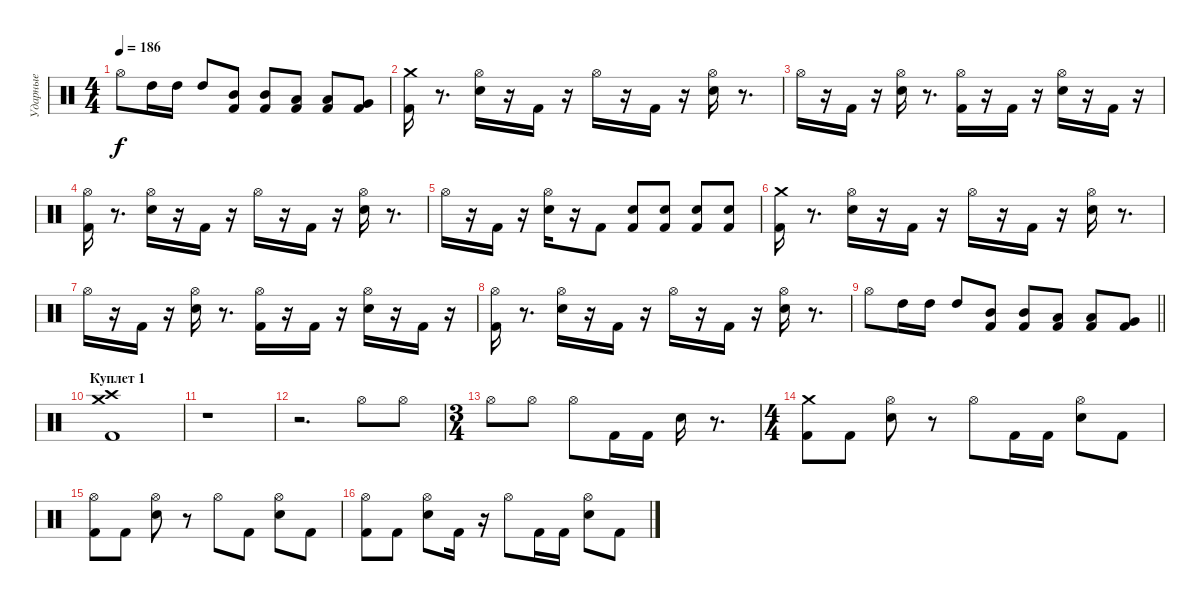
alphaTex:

\track ("Ударные" "Ударные") {instrument percussion}
\staff {score}
\articulation defaults
\ts (4 4)
\tempo 186
\clef neutral
\ks c "Hi-Hat (open)".8{dy f} "High Tom (hit)".16 "High Tom (hit)".16 "High Tom (hit)".8
("Kick (hit) 2" "Mid Tom (hit)").8 ("Kick (hit) 2" "Mid Tom (hit)").8 ("Kick (hit) 2" "Low Tom (hit)").8 ("Kick (hit) 2" "Low Tom (hit)").8 ("Kick (hit) 2" "Very Low Tom (hit)").8 |
("Kick (hit) 2" "Crash medium (hit)").16 r.8{d} ("Snare (hit) 2" "Hi-Hat (open)").16 r.16 "Kick (hit) 2".16 r.16 "Hi-Hat (open)".16 r.16 "Kick (hit) 2".16 r.16 ("Snare (hit) 2" "Hi-Hat (open)").16 r.8{d} |
"Hi-Hat (open)".16 r.16 "Kick (hit) 2".16 r.16 ("Snare (hit) 2" "Hi-Hat (open)").16 r.8{d} ("Kick (hit) 2" "Hi-Hat (open)").16 r.16 "Kick (hit) 2".16 r.16 ("Snare (hit) 2" "Hi-Hat (open)").16 r.16 "Kick (hit) 2".16 r.16 |
("Kick (hit) 2" "Hi-Hat (open)").16 r.8{d} ("Snare (hit) 2" "Hi-Hat (open)").16 r.16 "Kick (hit) 2".16 r.16 "Hi-Hat (open)".16 r.16 "Kick (hit) 2".16 r.16 ("Snare (hit) 2" "Hi-Hat (open)").16 r.8{d} |
"Hi-Hat (open)".16 r.16 "Kick (hit) 2".16 r.16 ("Snare (hit) 2" "Hi-Hat (open)").16 r.16 "Kick (hit) 2".8 ("Kick (hit) 2" "Snare (hit) 2").8 ("Kick (hit) 2" "Snare (hit) 2").8 ("Kick (hit) 2" "Snare (hit) 2").8 ("Kick (hit) 2" "Snare (hit) 2").8 |
("Kick (hit) 2" "Crash medium (hit)").16 r.8{d} ("Snare (hit) 2" "Hi-Hat (open)").16 r.16 "Kick (hit) 2".16 r.16 "Hi-Hat (open)".16 r.16 "Kick (hit) 2".16 r.16 ("Snare (hit) 2" "Hi-Hat (open)").16 r.8{d} |
"Hi-Hat (open)".16 r.16 "Kick (hit) 2".16 r.16 ("Snare (hit) 2" "Hi-Hat (open)").16 r.8{d} ("Kick (hit) 2" "Hi-Hat (open)").16 r.16 "Kick (hit) 2".16 r.16 ("Snare (hit) 2" "Hi-Hat (open)").16 r.16 "Kick (hit) 2".16 r.16 |
("Kick (hit) 2" "Hi-Hat (open)").16 r.8{d} ("Snare (hit) 2" "Hi-Hat (open)").16 r.16 "Kick (hit) 2".16 r.16 "Hi-Hat (open)".16 r.16 "Kick (hit) 2".16 r.16 ("Snare (hit) 2" "Hi-Hat (open)").16 r.8{d} |
\barLineRight lightlight "Hi-Hat (open)".8 "High Tom (hit)".16 "High Tom (hit)".16 "High Tom (hit)".8
("Kick (hit) 2" "Mid Tom (hit)").8 ("Kick (hit) 2" "Mid Tom (hit)").8 ("Kick (hit) 2" "Low Tom (hit)").8 ("Kick (hit) 2" "Low Tom (hit)").8 ("Kick (hit) 2" "Very Low Tom (hit)").8 |
\section ("" "Куплет 1")
("Kick (hit) 2" "Crash high (hit)" "Crash medium (hit)").1 |
r.1 |
r.2{d} "Hi-Hat (open)".8 "Hi-Hat (open)".8 |
\ts (3 4)
"Hi-Hat (open)".8 "Hi-Hat (open)".8 "Hi-Hat (open)".8 "Kick (hit) 2".16 "Kick (hit) 2".16 "Snare (hit) 2".16 r.8{d} |
\ts (4 4)
("Kick (hit) 2" "Crash medium (hit)").8 "Kick (hit) 2".8 ("Snare (hit) 2" "Hi-Hat (open)").8 r.8 "Hi-Hat (open)".8 "Kick (hit) 2".16 "Kick (hit) 2".16 ("Snare (hit) 2" "Hi-Hat (open)").8 "Kick (hit) 2".8 |
("Kick (hit) 2" "Hi-Hat (open)").8 "Kick (hit) 2".8 ("Snare (hit) 2" "Hi-Hat (open)").8 r.8 "Hi-Hat (open)".8 "Kick (hit) 2".8 ("Snare (hit) 2" "Hi-Hat (open)").8 "Kick (hit) 2".8 |
("Kick (hit) 2" "Hi-Hat (open)").8 "Kick (hit) 2".8 ("Snare (hit) 2" "Hi-Hat (open)").8 "Kick (hit) 2".16 r.16 "Hi-Hat (open)".8 "Kick (hit) 2".16 "Kick (hit) 2".16 ("Snare (hit) 2" "Hi-Hat (open)").8 "Kick (hit) 2".8
